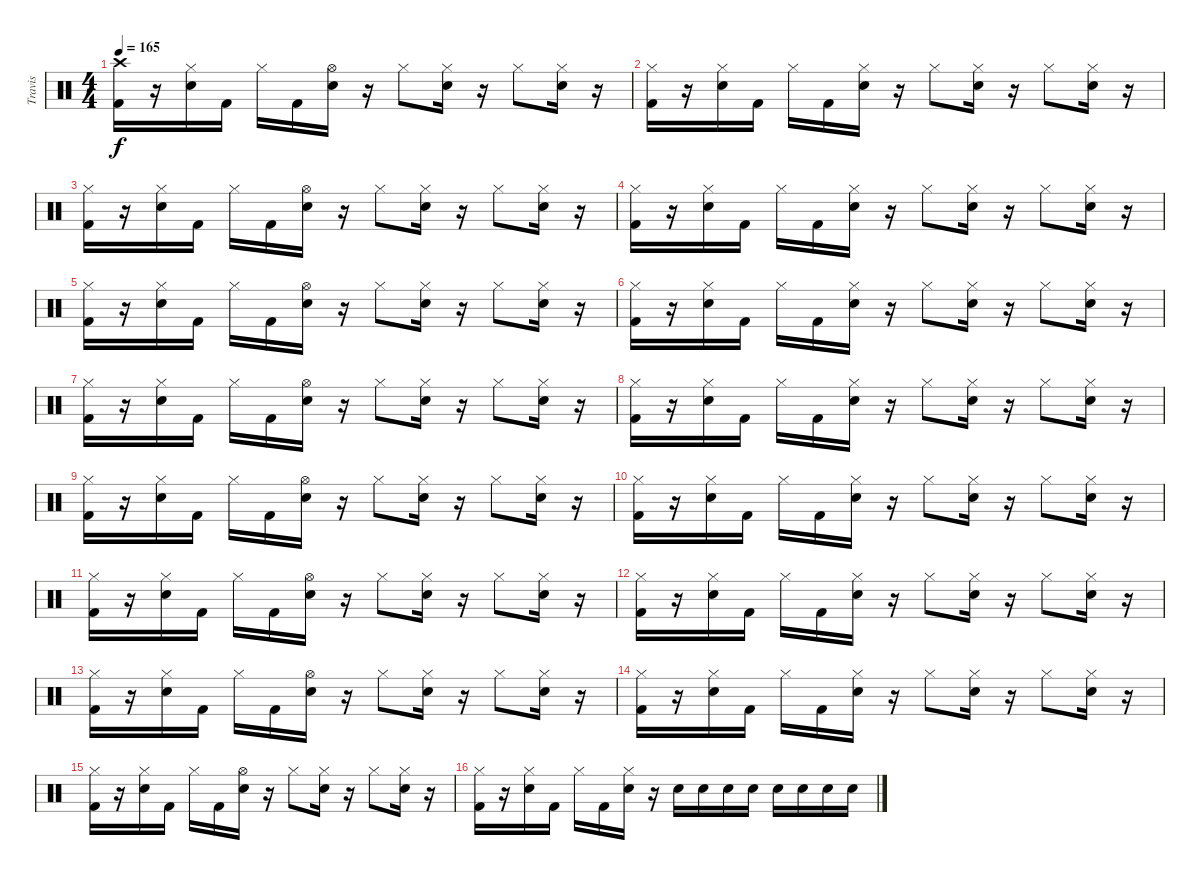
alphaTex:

\track ("Travis" "Travis") {instrument percussion}
\staff {score}
\articulation defaults
\ts (4 4)
\tempo 165
\clef neutral
\ks c
("Kick (hit) 2" "Crash high (hit)").16{dy f} r.16 ("Electric Snare (hit)" "Hi-Hat (closed)").16 "Kick (hit) 2".16 "Hi-Hat (closed)".16 "Kick (hit) 2".16 ("Electric Snare (hit)" "Hi-Hat (open)").16 r.16 "Hi-Hat (closed)".8 ("Electric Snare (hit)" "Hi-Hat (closed)").16 r.16 "Hi-Hat (closed)".8 ("Electric Snare (hit)" "Hi-Hat (closed)").16 r.16 |
("Kick (hit) 2" "Hi-Hat (closed)").16 r.16 ("Electric Snare (hit)" "Hi-Hat (closed)").16 "Kick (hit) 2".16 "Hi-Hat (closed)".16 "Kick (hit) 2".16 ("Electric Snare (hit)" "Hi-Hat (closed)").16 r.16 "Hi-Hat (closed)".8 ("Electric Snare (hit)" "Hi-Hat (closed)").16 r.16 "Hi-Hat (closed)".8 ("Electric Snare (hit)" "Hi-Hat (closed)").16 r.16 |
("Hi-Hat (closed)" "Kick (hit) 2").16 r.16 ("Electric Snare (hit)" "Hi-Hat (closed)").16 "Kick (hit) 2".16 "Hi-Hat (closed)".16 "Kick (hit) 2".16 ("Electric Snare (hit)" "Hi-Hat (open)").16 r.16 "Hi-Hat (closed)".8 ("Electric Snare (hit)" "Hi-Hat (closed)").16 r.16 "Hi-Hat (closed)".8 ("Electric Snare (hit)" "Hi-Hat (closed)").16 r.16 |
("Kick (hit) 2" "Hi-Hat (closed)").16 r.16 ("Electric Snare (hit)" "Hi-Hat (closed)").16 "Kick (hit) 2".16 "Hi-Hat (closed)".16 "Kick (hit) 2".16 ("Electric Snare (hit)" "Hi-Hat (closed)").16 r.16 "Hi-Hat (closed)".8 ("Electric Snare (hit)" "Hi-Hat (closed)").16 r.16 "Hi-Hat (closed)".8 ("Electric Snare (hit)" "Hi-Hat (closed)").16 r.16 |
("Kick (hit) 2" "Hi-Hat (closed)").16 r.16 ("Electric Snare (hit)" "Hi-Hat (closed)").16 "Kick (hit) 2".16 "Hi-Hat (closed)".16 "Kick (hit) 2".16 ("Electric Snare (hit)" "Hi-Hat (open)").16 r.16 "Hi-Hat (closed)".8 ("Electric Snare (hit)" "Hi-Hat (closed)").16 r.16 "Hi-Hat (closed)".8 ("Electric Snare (hit)" "Hi-Hat (closed)").16 r.16 |
("Kick (hit) 2" "Hi-Hat (closed)").16 r.16 ("Electric Snare (hit)" "Hi-Hat (closed)").16 "Kick (hit) 2".16 "Hi-Hat (closed)".16 "Kick (hit) 2".16 ("Electric Snare (hit)" "Hi-Hat (closed)").16 r.16 "Hi-Hat (closed)".8 ("Electric Snare (hit)" "Hi-Hat (closed)").16 r.16 "Hi-Hat (closed)".8 ("Electric Snare (hit)" "Hi-Hat (closed)").16 r.16 |
("Kick (hit) 2" "Hi-Hat (closed)").16 r.16 ("Electric Snare (hit)" "Hi-Hat (closed)").16 "Kick (hit) 2".16 "Hi-Hat (closed)".16 "Kick (hit) 2".16 ("Electric Snare (hit)" "Hi-Hat (open)").16 r.16 "Hi-Hat (closed)".8 ("Electric Snare (hit)" "Hi-Hat (closed)").16 r.16 "Hi-Hat (closed)".8 ("Electric Snare (hit)" "Hi-Hat (closed)").16 r.16 |
("Kick (hit) 2" "Hi-Hat (closed)").16 r.16 ("Electric Snare (hit)" "Hi-Hat (closed)").16 "Kick (hit) 2".16 "Hi-Hat (closed)".16 "Kick (hit) 2".16 ("Electric Snare (hit)" "Hi-Hat (closed)").16 r.16 "Hi-Hat (closed)".8 ("Electric Snare (hit)" "Hi-Hat (closed)").16 r.16 "Hi-Hat (closed)".8 ("Electric Snare (hit)" "Hi-Hat (closed)").16 r.16 |
("Kick (hit) 2" "Hi-Hat (closed)").16 r.16 ("Electric Snare (hit)" "Hi-Hat (closed)").16 "Kick (hit) 2".16 "Hi-Hat (closed)".16 "Kick (hit) 2".16 ("Electric Snare (hit)" "Hi-Hat (open)").16 r.16 "Hi-Hat (closed)".8 ("Electric Snare (hit)" "Hi-Hat (closed)").16 r.16 "Hi-Hat (closed)".8 ("Electric Snare (hit)" "Hi-Hat (closed)").16 r.16 |
("Kick (hit) 2" "Hi-Hat (closed)").16 r.16 ("Electric Snare (hit)" "Hi-Hat (closed)").16 "Kick (hit) 2".16 "Hi-Hat (closed)".16 "Kick (hit) 2".16 ("Electric Snare (hit)" "Hi-Hat (closed)").16 r.16 "Hi-Hat (closed)".8 ("Electric Snare (hit)" "Hi-Hat (closed)").16 r.16 "Hi-Hat (closed)".8 ("Electric Snare (hit)" "Hi-Hat (closed)").16 r.16 |
("Kick (hit) 2" "Hi-Hat (closed)").16 r.16 ("Electric Snare (hit)" "Hi-Hat (closed)").16 "Kick (hit) 2".16 "Hi-Hat (closed)".16 "Kick (hit) 2".16 ("Electric Snare (hit)" "Hi-Hat (open)").16 r.16 "Hi-Hat (closed)".8 ("Electric Snare (hit)" "Hi-Hat (closed)").16 r.16 "Hi-Hat (closed)".8 ("Electric Snare (hit)" "Hi-Hat (closed)").16 r.16 |
("Kick (hit) 2" "Hi-Hat (closed)").16 r.16 ("Electric Snare (hit)" "Hi-Hat (closed)").16 "Kick (hit) 2".16 "Hi-Hat (closed)".16 "Kick (hit) 2".16 ("Electric Snare (hit)" "Hi-Hat (closed)").16 r.16 "Hi-Hat (closed)".8 ("Electric Snare (hit)" "Hi-Hat (closed)").16 r.16 "Hi-Hat (closed)".8 ("Electric Snare (hit)" "Hi-Hat (closed)").16 r.16 |
("Kick (hit) 2" "Hi-Hat (closed)").16 r.16 ("Electric Snare (hit)" "Hi-Hat (closed)").16 "Kick (hit) 2".16 "Hi-Hat (closed)".16 "Kick (hit) 2".16 ("Electric Snare (hit)" "Hi-Hat (open)").16 r.16 "Hi-Hat (closed)".8 ("Electric Snare (hit)" "Hi-Hat (closed)").16 r.16 "Hi-Hat (closed)".8 ("Electric Snare (hit)" "Hi-Hat (closed)").16 r.16 |
("Kick (hit) 2" "Hi-Hat (closed)").16 r.16 ("Electric Snare (hit)" "Hi-Hat (closed)").16 "Kick (hit) 2".16 "Hi-Hat (closed)".16 "Kick (hit) 2".16 ("Electric Snare (hit)" "Hi-Hat (closed)").16 r.16 "Hi-Hat (closed)".8 ("Electric Snare (hit)" "Hi-Hat (closed)").16 r.16 "Hi-Hat (closed)".8 ("Electric Snare (hit)" "Hi-Hat (closed)").16 r.16 |
("Kick (hit) 2" "Hi-Hat (closed)").16 r.16 ("Electric Snare (hit)" "Hi-Hat (closed)").16 "Kick (hit) 2".16 "Hi-Hat (closed)".16 "Kick (hit) 2".16 ("Electric Snare (hit)" "Hi-Hat (open)").16 r.16 "Hi-Hat (closed)".8 ("Electric Snare (hit)" "Hi-Hat (closed)").16 r.16 "Hi-Hat (closed)".8 ("Electric Snare (hit)" "Hi-Hat (closed)").16 r.16 |
("Kick (hit) 2" "Hi-Hat (closed)").16 r.16 ("Electric Snare (hit)" "Hi-Hat (closed)").16 "Kick (hit) 2".16 "Hi-Hat (closed)".16 "Kick (hit) 2".16 ("Electric Snare (hit)" "Hi-Hat (closed)").16 r.16 "Electric Snare (hit)".16 "Electric Snare (hit)".16 "Electric Snare (hit)".16 "Electric Snare (hit)".16 "Electric Snare (hit)".16 "Electric Snare (hit)".16 "Electric Snare (hit)".16 "Electric Snare (hit)".16
